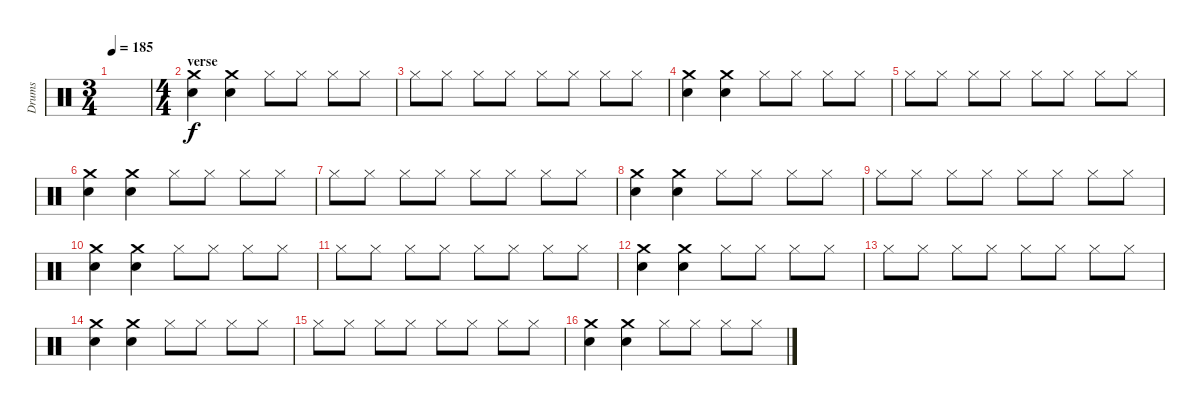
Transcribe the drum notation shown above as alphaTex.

\track ("Drums" "Drums") {instrument percussion}
\staff {score}
\articulation defaults
\ts (3 4)
\tempo 185
\clef neutral
\ks c
|
\ts (4 4)
\section ("" "verse")
("Crash medium (hit)" "Snare (hit) 2").4 ("Crash medium (hit)" "Snare (hit) 2").4 "Hi-Hat (closed)".8 "Hi-Hat (closed)".8 "Hi-Hat (closed)".8 "Hi-Hat (closed)".8 |
"Hi-Hat (closed)".8 "Hi-Hat (closed)".8 "Hi-Hat (closed)".8 "Hi-Hat (closed)".8 "Hi-Hat (closed)".8 "Hi-Hat (closed)".8 "Hi-Hat (closed)".8 "Hi-Hat (closed)".8 |
("Crash medium (hit)" "Snare (hit) 2").4 ("Crash medium (hit)" "Snare (hit) 2").4 "Hi-Hat (closed)".8 "Hi-Hat (closed)".8 "Hi-Hat (closed)".8 "Hi-Hat (closed)".8 |
"Hi-Hat (closed)".8 "Hi-Hat (closed)".8 "Hi-Hat (closed)".8 "Hi-Hat (closed)".8 "Hi-Hat (closed)".8 "Hi-Hat (closed)".8 "Hi-Hat (closed)".8 "Hi-Hat (closed)".8 |
("Crash medium (hit)" "Snare (hit) 2").4 ("Crash medium (hit)" "Snare (hit) 2").4 "Hi-Hat (closed)".8 "Hi-Hat (closed)".8 "Hi-Hat (closed)".8 "Hi-Hat (closed)".8 |
"Hi-Hat (closed)".8 "Hi-Hat (closed)".8 "Hi-Hat (closed)".8 "Hi-Hat (closed)".8 "Hi-Hat (closed)".8 "Hi-Hat (closed)".8 "Hi-Hat (closed)".8 "Hi-Hat (closed)".8 |
("Crash medium (hit)" "Snare (hit) 2").4 ("Crash medium (hit)" "Snare (hit) 2").4 "Hi-Hat (closed)".8 "Hi-Hat (closed)".8 "Hi-Hat (closed)".8 "Hi-Hat (closed)".8 |
"Hi-Hat (closed)".8 "Hi-Hat (closed)".8 "Hi-Hat (closed)".8 "Hi-Hat (closed)".8 "Hi-Hat (closed)".8 "Hi-Hat (closed)".8 "Hi-Hat (closed)".8 "Hi-Hat (closed)".8 |
("Crash medium (hit)" "Snare (hit) 2").4 ("Crash medium (hit)" "Snare (hit) 2").4 "Hi-Hat (closed)".8 "Hi-Hat (closed)".8 "Hi-Hat (closed)".8 "Hi-Hat (closed)".8 |
"Hi-Hat (closed)".8 "Hi-Hat (closed)".8 "Hi-Hat (closed)".8 "Hi-Hat (closed)".8 "Hi-Hat (closed)".8 "Hi-Hat (closed)".8 "Hi-Hat (closed)".8 "Hi-Hat (closed)".8 |
("Crash medium (hit)" "Snare (hit) 2").4 ("Crash medium (hit)" "Snare (hit) 2").4 "Hi-Hat (closed)".8 "Hi-Hat (closed)".8 "Hi-Hat (closed)".8 "Hi-Hat (closed)".8 |
"Hi-Hat (closed)".8 "Hi-Hat (closed)".8 "Hi-Hat (closed)".8 "Hi-Hat (closed)".8 "Hi-Hat (closed)".8 "Hi-Hat (closed)".8 "Hi-Hat (closed)".8 "Hi-Hat (closed)".8 |
("Crash medium (hit)" "Snare (hit) 2").4 ("Crash medium (hit)" "Snare (hit) 2").4 "Hi-Hat (closed)".8 "Hi-Hat (closed)".8 "Hi-Hat (closed)".8 "Hi-Hat (closed)".8 |
"Hi-Hat (closed)".8 "Hi-Hat (closed)".8 "Hi-Hat (closed)".8 "Hi-Hat (closed)".8 "Hi-Hat (closed)".8 "Hi-Hat (closed)".8 "Hi-Hat (closed)".8 "Hi-Hat (closed)".8 |
("Crash medium (hit)" "Snare (hit) 2").4 ("Crash medium (hit)" "Snare (hit) 2").4 "Hi-Hat (closed)".8 "Hi-Hat (closed)".8 "Hi-Hat (closed)".8 "Hi-Hat (closed)".8
